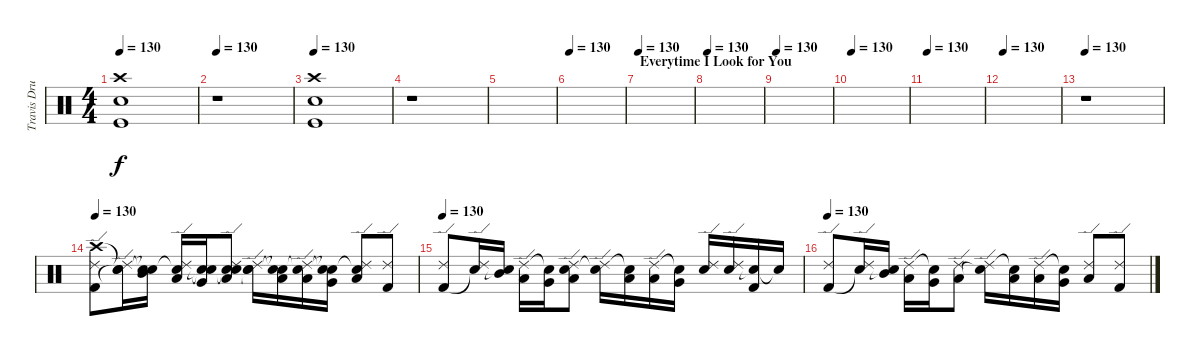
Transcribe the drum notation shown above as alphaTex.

\track ("Travis Drums" "Travis Dru") {instrument percussion}
\staff {score}
\articulation defaults
\ts (4 4)
\tempo 130
\clef neutral
\ks c
("Crash high (hit)" "Snare (hit) 2" "Kick (hit)").1{dy f} |
\tempo 130
r.1 |
\tempo 130
("Crash high (hit)" "Snare (hit) 2" "Kick (hit)").1 |
r.1 |
|
\tempo 130
|
\section ("" "Everytime I Look for You")
\tempo 130
|
\tempo 130
|
\tempo 130
|
\tempo 130
|
\tempo 130
|
\tempo 130
|
\tempo 130
r.1 |
\tempo 130
("Crash high (hit)" "Ride (edge) 2" "Kick (hit) 2").8 ("Snare (hit)"{t} "Ride (edge) 2" "Snare (hit)"{t}).16 ("Snare (hit)"{t} "Snare (hit)"{t} "Mid Tom (hit)").16 ("Snare (hit)"{t} "Ride (edge) 2" "Low Tom (hit)").16 ("Snare (hit)"{t} "Snare (hit)"{t} "Very Low Tom (hit)").16 ("Snare (hit)"{t} "Ride (edge) 2" "Electric Snare (hit)" "Low Floor Tom (hit)").8 ("Snare (hit)"{t} "Ride (edge) 2" "Snare (hit)"{t}).16 ("Snare (hit)"{t} "Snare (hit)"{t} "Low Tom (hit)").16 ("Snare (hit)"{t} "Ride (edge) 2" "Low Tom (hit)").16 ("Snare (hit)"{t} "Snare (hit)"{t} "Very Low Tom (hit)").16 ("Snare (hit)"{t} "Ride (edge) 2" "Low Floor Tom (hit)").8 ("Ride (edge) 2" "Kick (hit) 2").8 |
\tempo 130
("Ride (edge) 2" "Kick (hit) 2").8 ("Ride (edge) 2" "Snare (hit)"{t}).16 ("Snare (hit)"{t} "Mid Tom (hit)").16 ("Ride (edge) 2" "Low Tom (hit)").16 ("Snare (hit)"{t} "Very Low Tom (hit)").16 ("Ride (edge) 2" "Electric Snare (hit)" "Low Floor Tom (hit)").8 ("Ride (edge) 2" "Snare (hit)"{t}).16 ("Snare (hit)"{t} "Low Tom (hit)").16 ("Ride (edge) 2" "Low Tom (hit)").16 ("Snare (hit)"{t} "Very Low Tom (hit)").16 ("Ride (edge) 2" "Electric Snare (hit)").16 ("Ride (edge) 2" "Electric Snare (hit)").16 ("Electric Snare (hit)"{t} "Kick (hit) 2").16 "Snare (hit)"{t}.16 |
\tempo 130
("Ride (edge) 2" "Kick (hit) 2").8 ("Ride (edge) 2" "Snare (hit)"{t}).16 ("Snare (hit)"{t} "Mid Tom (hit)").16 ("Ride (edge) 2" "Low Tom (hit)").16 ("Snare (hit)"{t} "Very Low Tom (hit)").16 ("Ride (edge) 2" "Low Floor Tom (hit)").8 ("Ride (edge) 2" "Snare (hit)"{t}).16 ("Snare (hit)"{t} "Low Tom (hit)").16 ("Ride (edge) 2" "Low Tom (hit)").16 ("Snare (hit)"{t} "Very Low Tom (hit)").16 ("Ride (edge) 2" "Low Floor Tom (hit)").8 ("Ride (edge) 2" "Kick (hit) 2").8
